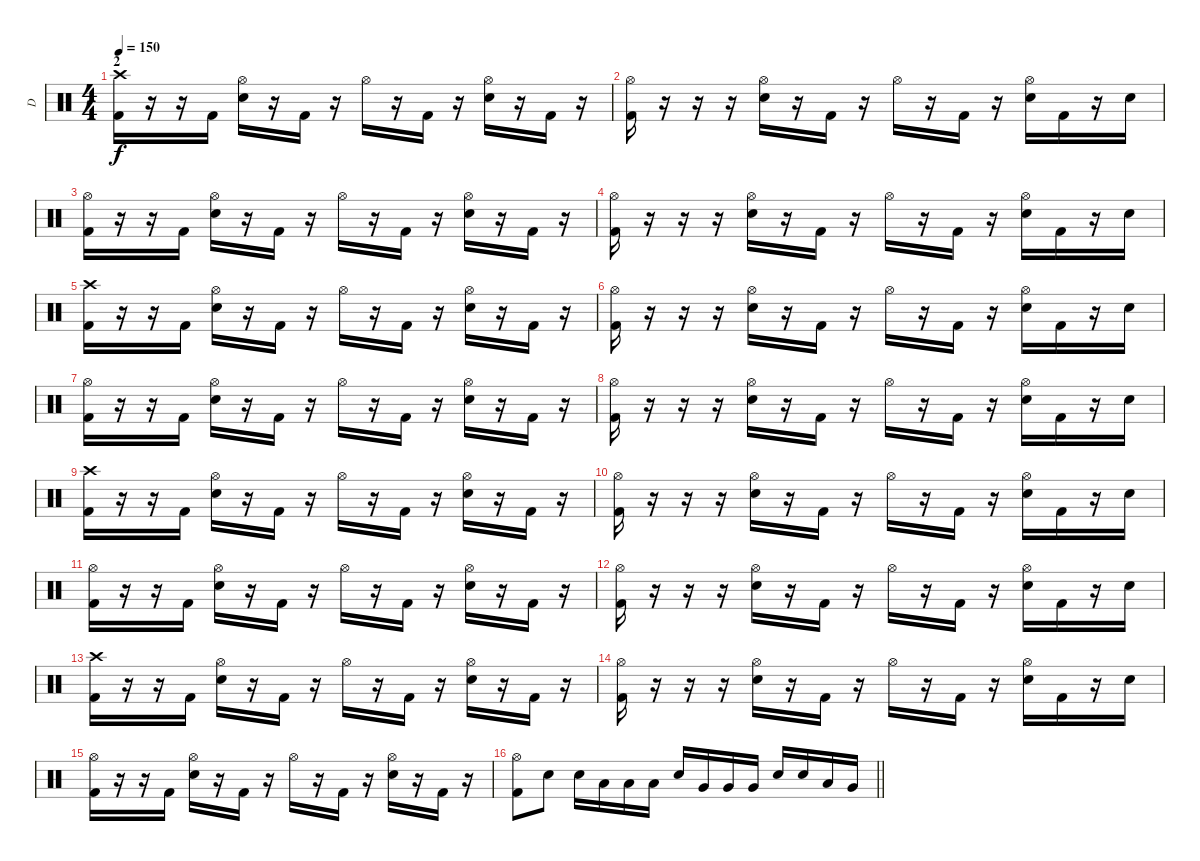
\track ("D" "D") {instrument percussion}
\staff {score}
\articulation defaults
\ts (4 4)
\section ("" "2")
\tempo 150
\clef neutral
\ks c
("Crash high (hit)" "Kick (hit) 2").16{dy f} r.16 r.16 "Kick (hit) 2".16 ("Hi-Hat (open)" "Electric Snare (hit)").16 r.16 "Kick (hit) 2".16 r.16 "Hi-Hat (open)".16 r.16 "Kick (hit) 2".16 r.16 ("Hi-Hat (open)" "Electric Snare (hit)").16 r.16 "Kick (hit) 2".16 r.16 |
("Hi-Hat (open)" "Kick (hit) 2").16 r.16 r.16 r.16 ("Hi-Hat (open)" "Electric Snare (hit)").16 r.16 "Kick (hit) 2".16 r.16 "Hi-Hat (open)".16 r.16 "Kick (hit) 2".16 r.16 ("Hi-Hat (open)" "Electric Snare (hit)").16 "Kick (hit) 2".16 r.16 "Electric Snare (hit)".16 |
("Hi-Hat (open)" "Kick (hit) 2").16 r.16 r.16 "Kick (hit) 2".16 ("Hi-Hat (open)" "Electric Snare (hit)").16 r.16 "Kick (hit) 2".16 r.16 "Hi-Hat (open)".16 r.16 "Kick (hit) 2".16 r.16 ("Hi-Hat (open)" "Electric Snare (hit)").16 r.16 "Kick (hit) 2".16 r.16 |
("Hi-Hat (open)" "Kick (hit) 2").16 r.16 r.16 r.16 ("Hi-Hat (open)" "Electric Snare (hit)").16 r.16 "Kick (hit) 2".16 r.16 "Hi-Hat (open)".16 r.16 "Kick (hit) 2".16 r.16 ("Hi-Hat (open)" "Electric Snare (hit)").16 "Kick (hit) 2".16 r.16 "Electric Snare (hit)".16 |
("Crash high (hit)" "Kick (hit) 2").16 r.16 r.16 "Kick (hit) 2".16 ("Hi-Hat (open)" "Electric Snare (hit)").16 r.16 "Kick (hit) 2".16 r.16 "Hi-Hat (open)".16 r.16 "Kick (hit) 2".16 r.16 ("Hi-Hat (open)" "Electric Snare (hit)").16 r.16 "Kick (hit) 2".16 r.16 |
("Hi-Hat (open)" "Kick (hit) 2").16 r.16 r.16 r.16 ("Hi-Hat (open)" "Electric Snare (hit)").16 r.16 "Kick (hit) 2".16 r.16 "Hi-Hat (open)".16 r.16 "Kick (hit) 2".16 r.16 ("Hi-Hat (open)" "Electric Snare (hit)").16 "Kick (hit) 2".16 r.16 "Electric Snare (hit)".16 |
("Hi-Hat (open)" "Kick (hit) 2").16 r.16 r.16 "Kick (hit) 2".16 ("Hi-Hat (open)" "Electric Snare (hit)").16 r.16 "Kick (hit) 2".16 r.16 "Hi-Hat (open)".16 r.16 "Kick (hit) 2".16 r.16 ("Hi-Hat (open)" "Electric Snare (hit)").16 r.16 "Kick (hit) 2".16 r.16 |
("Hi-Hat (open)" "Kick (hit) 2").16 r.16 r.16 r.16 ("Hi-Hat (open)" "Electric Snare (hit)").16 r.16 "Kick (hit) 2".16 r.16 "Hi-Hat (open)".16 r.16 "Kick (hit) 2".16 r.16 ("Hi-Hat (open)" "Electric Snare (hit)").16 "Kick (hit) 2".16 r.16 "Electric Snare (hit)".16 |
("Crash high (hit)" "Kick (hit) 2").16 r.16 r.16 "Kick (hit) 2".16 ("Hi-Hat (open)" "Electric Snare (hit)").16 r.16 "Kick (hit) 2".16 r.16 "Hi-Hat (open)".16 r.16 "Kick (hit) 2".16 r.16 ("Hi-Hat (open)" "Electric Snare (hit)").16 r.16 "Kick (hit) 2".16 r.16 |
("Hi-Hat (open)" "Kick (hit) 2").16 r.16 r.16 r.16 ("Hi-Hat (open)" "Electric Snare (hit)").16 r.16 "Kick (hit) 2".16 r.16 "Hi-Hat (open)".16 r.16 "Kick (hit) 2".16 r.16 ("Hi-Hat (open)" "Electric Snare (hit)").16 "Kick (hit) 2".16 r.16 "Electric Snare (hit)".16 |
("Hi-Hat (open)" "Kick (hit) 2").16 r.16 r.16 "Kick (hit) 2".16 ("Hi-Hat (open)" "Electric Snare (hit)").16 r.16 "Kick (hit) 2".16 r.16 "Hi-Hat (open)".16 r.16 "Kick (hit) 2".16 r.16 ("Hi-Hat (open)" "Electric Snare (hit)").16 r.16 "Kick (hit) 2".16 r.16 |
("Hi-Hat (open)" "Kick (hit) 2").16 r.16 r.16 r.16 ("Hi-Hat (open)" "Electric Snare (hit)").16 r.16 "Kick (hit) 2".16 r.16 "Hi-Hat (open)".16 r.16 "Kick (hit) 2".16 r.16 ("Hi-Hat (open)" "Electric Snare (hit)").16 "Kick (hit) 2".16 r.16 "Electric Snare (hit)".16 |
("Crash high (hit)" "Kick (hit) 2").16 r.16 r.16 "Kick (hit) 2".16 ("Hi-Hat (open)" "Electric Snare (hit)").16 r.16 "Kick (hit) 2".16 r.16 "Hi-Hat (open)".16 r.16 "Kick (hit) 2".16 r.16 ("Hi-Hat (open)" "Electric Snare (hit)").16 r.16 "Kick (hit) 2".16 r.16 |
("Hi-Hat (open)" "Kick (hit) 2").16 r.16 r.16 r.16 ("Hi-Hat (open)" "Electric Snare (hit)").16 r.16 "Kick (hit) 2".16 r.16 "Hi-Hat (open)".16 r.16 "Kick (hit) 2".16 r.16 ("Hi-Hat (open)" "Electric Snare (hit)").16 "Kick (hit) 2".16 r.16 "Electric Snare (hit)".16 |
("Hi-Hat (open)" "Kick (hit) 2").16 r.16 r.16 "Kick (hit) 2".16 ("Hi-Hat (open)" "Electric Snare (hit)").16 r.16 "Kick (hit) 2".16 r.16 "Hi-Hat (open)".16 r.16 "Kick (hit) 2".16 r.16 ("Hi-Hat (open)" "Electric Snare (hit)").16 r.16 "Kick (hit) 2".16 r.16 |
\barLineRight lightlight
("Hi-Hat (open)" "Kick (hit) 2").8 "Electric Snare (hit)".8 "Electric Snare (hit)".16 "Low Tom (hit)".16 "Low Tom (hit)".16 "Low Tom (hit)".16 "Electric Snare (hit)".16 "Very Low Tom (hit)".16 "Very Low Tom (hit)".16 "Very Low Tom (hit)".16 "Electric Snare (hit)".16 "Electric Snare (hit)".16 "Low Tom (hit)".16 "Very Low Tom (hit)".16
